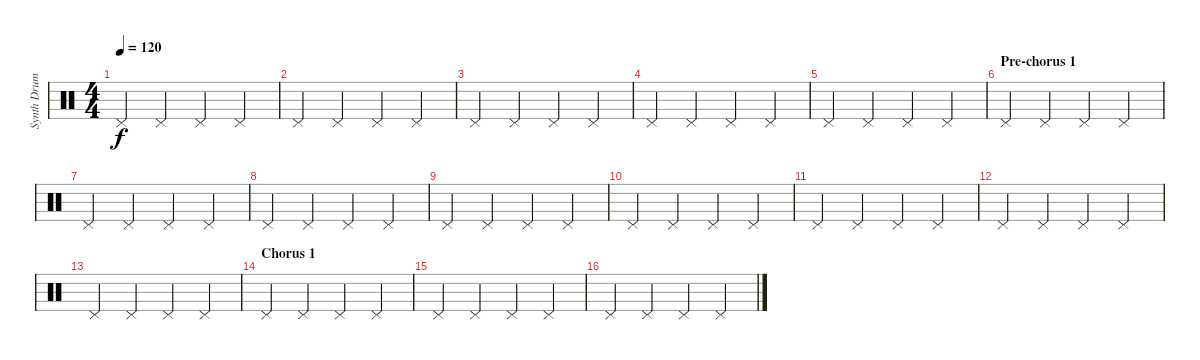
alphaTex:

\track ("Synth Drums hihat etc..." "Synth Drum") {instrument percussion}
\staff {score}
\articulation defaults
\ts (4 4)
\tempo 120
\clef neutral
\ks c "Pedal Hi-Hat (hit)".4{dy f} "Pedal Hi-Hat (hit)".4 "Pedal Hi-Hat (hit)".4 "Pedal Hi-Hat (hit)".4
|
"Pedal Hi-Hat (hit)".4 "Pedal Hi-Hat (hit)".4 "Pedal Hi-Hat (hit)".4 "Pedal Hi-Hat (hit)".4 |
"Pedal Hi-Hat (hit)".4 "Pedal Hi-Hat (hit)".4 "Pedal Hi-Hat (hit)".4 "Pedal Hi-Hat (hit)".4 |
"Pedal Hi-Hat (hit)".4 "Pedal Hi-Hat (hit)".4 "Pedal Hi-Hat (hit)".4 "Pedal Hi-Hat (hit)".4 |
"Pedal Hi-Hat (hit)".4 "Pedal Hi-Hat (hit)".4 "Pedal Hi-Hat (hit)".4 "Pedal Hi-Hat (hit)".4 |
\section ("" "Pre-chorus 1")
"Pedal Hi-Hat (hit)".4 "Pedal Hi-Hat (hit)".4 "Pedal Hi-Hat (hit)".4 "Pedal Hi-Hat (hit)".4 |
"Pedal Hi-Hat (hit)".4 "Pedal Hi-Hat (hit)".4 "Pedal Hi-Hat (hit)".4 "Pedal Hi-Hat (hit)".4 |
"Pedal Hi-Hat (hit)".4 "Pedal Hi-Hat (hit)".4 "Pedal Hi-Hat (hit)".4 "Pedal Hi-Hat (hit)".4 |
"Pedal Hi-Hat (hit)".4 "Pedal Hi-Hat (hit)".4 "Pedal Hi-Hat (hit)".4 "Pedal Hi-Hat (hit)".4 |
"Pedal Hi-Hat (hit)".4 "Pedal Hi-Hat (hit)".4 "Pedal Hi-Hat (hit)".4 "Pedal Hi-Hat (hit)".4 |
"Pedal Hi-Hat (hit)".4 "Pedal Hi-Hat (hit)".4 "Pedal Hi-Hat (hit)".4 "Pedal Hi-Hat (hit)".4 |
"Pedal Hi-Hat (hit)".4 "Pedal Hi-Hat (hit)".4 "Pedal Hi-Hat (hit)".4 "Pedal Hi-Hat (hit)".4 |
"Pedal Hi-Hat (hit)".4 "Pedal Hi-Hat (hit)".4 "Pedal Hi-Hat (hit)".4 "Pedal Hi-Hat (hit)".4 |
\section ("" "Chorus 1")
"Pedal Hi-Hat (hit)".4 "Pedal Hi-Hat (hit)".4 "Pedal Hi-Hat (hit)".4 "Pedal Hi-Hat (hit)".4 |
"Pedal Hi-Hat (hit)".4 "Pedal Hi-Hat (hit)".4 "Pedal Hi-Hat (hit)".4 "Pedal Hi-Hat (hit)".4 |
"Pedal Hi-Hat (hit)".4 "Pedal Hi-Hat (hit)".4 "Pedal Hi-Hat (hit)".4 "Pedal Hi-Hat (hit)".4
